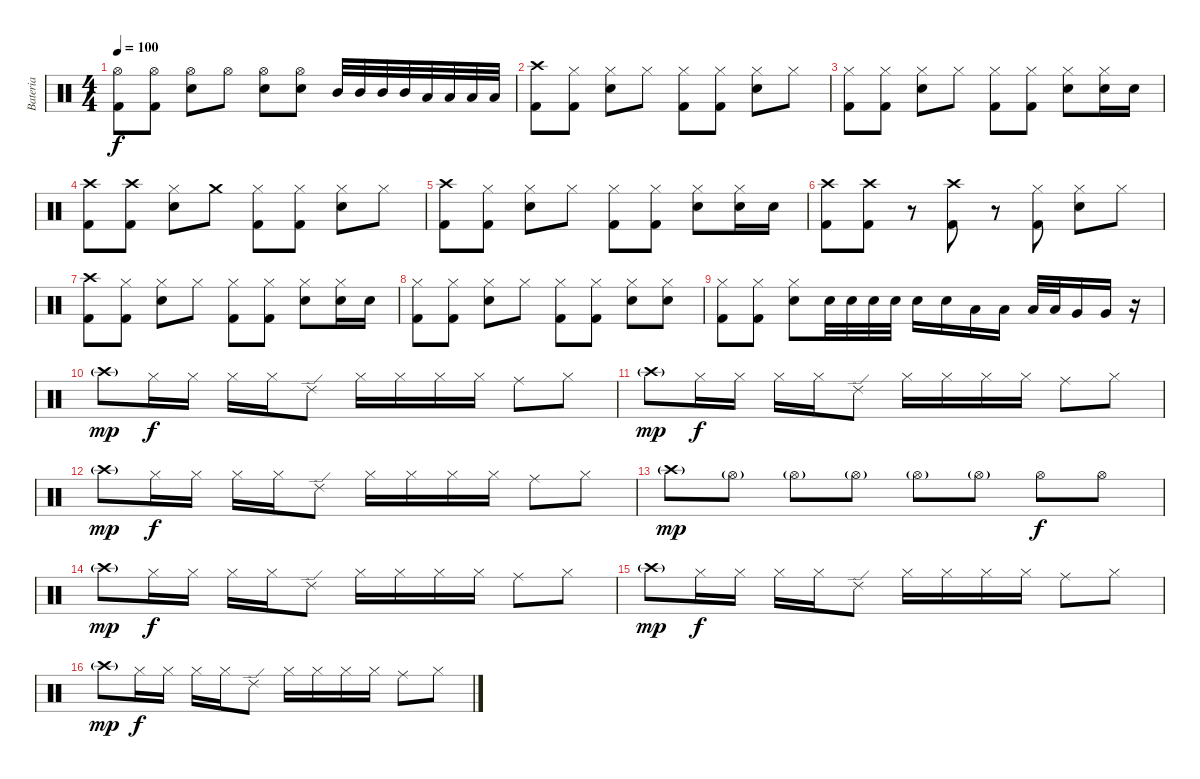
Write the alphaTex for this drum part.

\track ("Bateria" "Bateria") {instrument percussion}
\staff {score}
\articulation defaults
\ts (4 4)
\tempo 100
\clef neutral
\ks c
("Hi-Hat (open)" "Kick (hit) 2").8{dy f} ("Hi-Hat (open)" "Kick (hit) 2").8 ("Hi-Hat (open)" "Snare (hit) 2").8 "Hi-Hat (open)".8 ("Hi-Hat (open)" "Snare (hit) 2").8 ("Hi-Hat (open)" "Snare (hit) 2").8 "Mid Tom (hit)".32 "Mid Tom (hit)".32 "Mid Tom (hit)".32 "Mid Tom (hit)".32 "Low Tom (hit)".32 "Low Tom (hit)".32 "Low Tom (hit)".32 "Low Tom (hit)".32 |
("Crash high (hit)" "Kick (hit) 2").8 ("Hi-Hat (closed)" "Kick (hit) 2").8 ("Hi-Hat (closed)" "Snare (hit) 2").8 "Hi-Hat (closed)".8 ("Hi-Hat (closed)" "Kick (hit) 2").8 ("Hi-Hat (closed)" "Kick (hit) 2").8 ("Hi-Hat (closed)" "Snare (hit) 2").8 "Hi-Hat (closed)".8 |
("Hi-Hat (closed)" "Kick (hit) 2").8 ("Hi-Hat (closed)" "Kick (hit) 2").8 ("Hi-Hat (closed)" "Snare (hit) 2").8 "Hi-Hat (closed)".8 ("Hi-Hat (closed)" "Kick (hit) 2").8 ("Hi-Hat (closed)" "Kick (hit) 2").8 ("Hi-Hat (closed)" "Snare (hit) 2").8 ("Hi-Hat (closed)" "Snare (hit) 2").16 "Snare (hit) 2".16 |
("Crash high (hit)" "Kick (hit) 2").8 ("Crash high (hit)" "Kick (hit) 2").8 ("Hi-Hat (closed)" "Snare (hit) 2").8 "Crash medium (hit)".8 ("Hi-Hat (closed)" "Kick (hit) 2").8 ("Hi-Hat (closed)" "Kick (hit) 2").8 ("Hi-Hat (closed)" "Snare (hit) 2").8 "Hi-Hat (closed)".8 |
("Crash high (hit)" "Kick (hit) 2").8 ("Hi-Hat (closed)" "Kick (hit) 2").8 ("Hi-Hat (closed)" "Snare (hit) 2").8 "Hi-Hat (closed)".8 ("Hi-Hat (closed)" "Kick (hit) 2").8 ("Hi-Hat (closed)" "Kick (hit) 2").8 ("Hi-Hat (closed)" "Snare (hit) 2").8 ("Hi-Hat (closed)" "Snare (hit) 2").16 "Snare (hit) 2".16 |
("Crash high (hit)" "Kick (hit) 2").8 ("Crash high (hit)" "Kick (hit) 2").8 r.8 ("Crash high (hit)" "Kick (hit) 2").8 r.8 ("Hi-Hat (closed)" "Kick (hit) 2").8 ("Hi-Hat (closed)" "Snare (hit) 2").8 "Hi-Hat (closed)".8 |
("Crash high (hit)" "Kick (hit) 2").8 ("Hi-Hat (closed)" "Kick (hit) 2").8 ("Hi-Hat (closed)" "Snare (hit) 2").8 "Hi-Hat (closed)".8 ("Hi-Hat (closed)" "Kick (hit) 2").8 ("Hi-Hat (closed)" "Kick (hit) 2").8 ("Hi-Hat (closed)" "Snare (hit) 2").8 ("Hi-Hat (closed)" "Snare (hit) 2").16 "Snare (hit) 2".16 |
("Hi-Hat (closed)" "Kick (hit) 2").8 ("Hi-Hat (closed)" "Kick (hit) 2").8 ("Hi-Hat (closed)" "Snare (hit) 2").8 "Hi-Hat (closed)".8 ("Hi-Hat (closed)" "Kick (hit) 2").8 ("Hi-Hat (closed)" "Kick (hit) 2").8 ("Hi-Hat (closed)" "Snare (hit) 2").8 ("Hi-Hat (closed)" "Snare (hit) 2").8 |
("Hi-Hat (closed)" "Kick (hit) 2").8 ("Hi-Hat (closed)" "Kick (hit) 2").8 ("Hi-Hat (closed)" "Snare (hit) 2").8 "Snare (hit) 2".32 "Snare (hit) 2".32 "Snare (hit) 2".32 "Snare (hit) 2".32 "Snare (hit) 2".16 "Snare (hit) 2".16 "Low Tom (hit)".16 "Low Tom (hit)".16 "Low Tom (hit)".32 "Low Tom (hit)".32 "Very Low Tom (hit)".16 "Very Low Tom (hit)".16 r.16 |
"Crash high (hit)"{g}.8{dy mp} "Hi-Hat (closed)".16{dy f} "Hi-Hat (closed)".16 "Hi-Hat (closed)".16 "Hi-Hat (closed)".16 "Ride (edge) 2".8 "Hi-Hat (closed)".16 "Hi-Hat (closed)".16 "Hi-Hat (closed)".16 "Hi-Hat (closed)".16 "Ride (middle)".8 "Hi-Hat (closed)".8 |
"Crash high (hit)"{g}.8{dy mp} "Hi-Hat (closed)".16{dy f} "Hi-Hat (closed)".16 "Hi-Hat (closed)".16 "Hi-Hat (closed)".16 "Ride (edge) 2".8 "Hi-Hat (closed)".16 "Hi-Hat (closed)".16 "Hi-Hat (closed)".16 "Hi-Hat (closed)".16 "Ride (middle)".8 "Hi-Hat (closed)".8 |
"Crash high (hit)"{g}.8{dy mp} "Hi-Hat (closed)".16{dy f} "Hi-Hat (closed)".16 "Hi-Hat (closed)".16 "Hi-Hat (closed)".16 "Ride (edge) 2".8 "Hi-Hat (closed)".16 "Hi-Hat (closed)".16 "Hi-Hat (closed)".16 "Hi-Hat (closed)".16 "Ride (middle)".8 "Hi-Hat (closed)".8 |
"Crash high (hit)"{g}.8{dy mp} "Hi-Hat (open)"{g}.8 "Hi-Hat (open)"{g}.8 "Hi-Hat (open)"{g}.8 "Hi-Hat (open)"{g}.8 "Hi-Hat (open)"{g}.8 "Hi-Hat (open)".8{dy f} "Hi-Hat (open)".8 |
"Crash high (hit)"{g}.8{dy mp} "Hi-Hat (closed)".16{dy f} "Hi-Hat (closed)".16 "Hi-Hat (closed)".16 "Hi-Hat (closed)".16 "Ride (edge) 2".8 "Hi-Hat (closed)".16 "Hi-Hat (closed)".16 "Hi-Hat (closed)".16 "Hi-Hat (closed)".16 "Ride (middle)".8 "Hi-Hat (closed)".8 |
"Crash high (hit)"{g}.8{dy mp} "Hi-Hat (closed)".16{dy f} "Hi-Hat (closed)".16 "Hi-Hat (closed)".16 "Hi-Hat (closed)".16 "Ride (edge) 2".8 "Hi-Hat (closed)".16 "Hi-Hat (closed)".16 "Hi-Hat (closed)".16 "Hi-Hat (closed)".16 "Ride (middle)".8 "Hi-Hat (closed)".8 |
"Crash high (hit)"{g}.8{dy mp} "Hi-Hat (closed)".16{dy f} "Hi-Hat (closed)".16 "Hi-Hat (closed)".16 "Hi-Hat (closed)".16 "Ride (edge) 2".8 "Hi-Hat (closed)".16 "Hi-Hat (closed)".16 "Hi-Hat (closed)".16 "Hi-Hat (closed)".16 "Ride (middle)".8 "Hi-Hat (closed)".8
